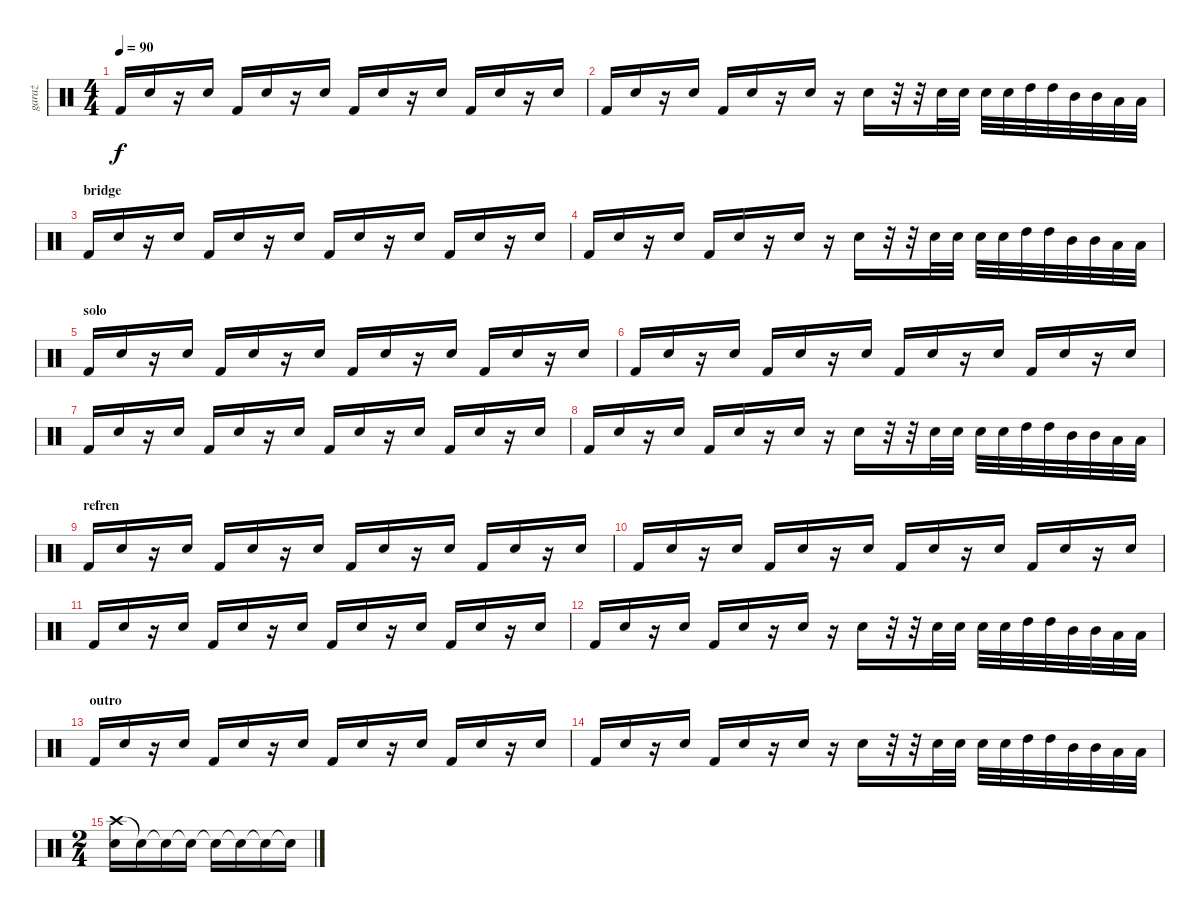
\track ("garaż" "garaż") {instrument percussion}
\staff {score}
\articulation defaults
\ts (4 4)
\tempo 90
\clef neutral
\ks c "Kick (hit) 2".16{dy f} "Snare (hit) 2".16
r.16 "Snare (hit) 2".16 "Kick (hit) 2".16 "Snare (hit) 2".16 r.16 "Snare (hit) 2".16 "Kick (hit) 2".16 "Snare (hit) 2".16 r.16 "Snare (hit) 2".16 "Kick (hit) 2".16 "Snare (hit) 2".16 r.16 "Snare (hit) 2".16 |
"Kick (hit) 2".16 "Snare (hit) 2".16 r.16 "Snare (hit) 2".16 "Kick (hit) 2".16 "Snare (hit) 2".16 r.16 "Snare (hit) 2".16 r.16 "Snare (hit) 2".16 r.32 r.32 "Snare (hit) 2".32 "Snare (hit) 2".32 "Snare (hit) 2".32 "Snare (hit) 2".32 "High Tom (hit)".32 "High Tom (hit)".32 "Mid Tom (hit)".32 "Mid Tom (hit)".32 "Low Tom (hit)".32 "Low Tom (hit)".32 |
\section ("" "bridge")
"Kick (hit) 2".16 "Snare (hit) 2".16 r.16 "Snare (hit) 2".16 "Kick (hit) 2".16 "Snare (hit) 2".16 r.16 "Snare (hit) 2".16 "Kick (hit) 2".16 "Snare (hit) 2".16 r.16 "Snare (hit) 2".16 "Kick (hit) 2".16 "Snare (hit) 2".16 r.16 "Snare (hit) 2".16 |
"Kick (hit) 2".16 "Snare (hit) 2".16 r.16 "Snare (hit) 2".16 "Kick (hit) 2".16 "Snare (hit) 2".16 r.16 "Snare (hit) 2".16 r.16 "Snare (hit) 2".16 r.32 r.32 "Snare (hit) 2".32 "Snare (hit) 2".32 "Snare (hit) 2".32 "Snare (hit) 2".32 "High Tom (hit)".32 "High Tom (hit)".32 "Mid Tom (hit)".32 "Mid Tom (hit)".32 "Low Tom (hit)".32 "Low Tom (hit)".32 |
\section ("" "solo")
"Kick (hit) 2".16 "Snare (hit) 2".16 r.16 "Snare (hit) 2".16 "Kick (hit) 2".16 "Snare (hit) 2".16 r.16 "Snare (hit) 2".16 "Kick (hit) 2".16 "Snare (hit) 2".16 r.16 "Snare (hit) 2".16 "Kick (hit) 2".16 "Snare (hit) 2".16 r.16 "Snare (hit) 2".16 |
"Kick (hit) 2".16 "Snare (hit) 2".16 r.16 "Snare (hit) 2".16 "Kick (hit) 2".16 "Snare (hit) 2".16 r.16 "Snare (hit) 2".16 "Kick (hit) 2".16 "Snare (hit) 2".16 r.16 "Snare (hit) 2".16 "Kick (hit) 2".16 "Snare (hit) 2".16 r.16 "Snare (hit) 2".16 |
"Kick (hit) 2".16 "Snare (hit) 2".16 r.16 "Snare (hit) 2".16 "Kick (hit) 2".16 "Snare (hit) 2".16 r.16 "Snare (hit) 2".16 "Kick (hit) 2".16 "Snare (hit) 2".16 r.16 "Snare (hit) 2".16 "Kick (hit) 2".16 "Snare (hit) 2".16 r.16 "Snare (hit) 2".16 |
"Kick (hit) 2".16 "Snare (hit) 2".16 r.16 "Snare (hit) 2".16 "Kick (hit) 2".16 "Snare (hit) 2".16 r.16 "Snare (hit) 2".16 r.16 "Snare (hit) 2".16 r.32 r.32 "Snare (hit) 2".32 "Snare (hit) 2".32 "Snare (hit) 2".32 "Snare (hit) 2".32 "High Tom (hit)".32 "High Tom (hit)".32 "Mid Tom (hit)".32 "Mid Tom (hit)".32 "Low Tom (hit)".32 "Low Tom (hit)".32 |
\section ("" "refren")
"Kick (hit) 2".16 "Snare (hit) 2".16 r.16 "Snare (hit) 2".16 "Kick (hit) 2".16 "Snare (hit) 2".16 r.16 "Snare (hit) 2".16 "Kick (hit) 2".16 "Snare (hit) 2".16 r.16 "Snare (hit) 2".16 "Kick (hit) 2".16 "Snare (hit) 2".16 r.16 "Snare (hit) 2".16 |
"Kick (hit) 2".16 "Snare (hit) 2".16 r.16 "Snare (hit) 2".16 "Kick (hit) 2".16 "Snare (hit) 2".16 r.16 "Snare (hit) 2".16 "Kick (hit) 2".16 "Snare (hit) 2".16 r.16 "Snare (hit) 2".16 "Kick (hit) 2".16 "Snare (hit) 2".16 r.16 "Snare (hit) 2".16 |
"Kick (hit) 2".16 "Snare (hit) 2".16 r.16 "Snare (hit) 2".16 "Kick (hit) 2".16 "Snare (hit) 2".16 r.16 "Snare (hit) 2".16 "Kick (hit) 2".16 "Snare (hit) 2".16 r.16 "Snare (hit) 2".16 "Kick (hit) 2".16 "Snare (hit) 2".16 r.16 "Snare (hit) 2".16 |
"Kick (hit) 2".16 "Snare (hit) 2".16 r.16 "Snare (hit) 2".16 "Kick (hit) 2".16 "Snare (hit) 2".16 r.16 "Snare (hit) 2".16 r.16 "Snare (hit) 2".16 r.32 r.32 "Snare (hit) 2".32 "Snare (hit) 2".32 "Snare (hit) 2".32 "Snare (hit) 2".32 "High Tom (hit)".32 "High Tom (hit)".32 "Mid Tom (hit)".32 "Mid Tom (hit)".32 "Low Tom (hit)".32 "Low Tom (hit)".32 |
\section ("" "outro")
"Kick (hit) 2".16 "Snare (hit) 2".16 r.16 "Snare (hit) 2".16 "Kick (hit) 2".16 "Snare (hit) 2".16 r.16 "Snare (hit) 2".16 "Kick (hit) 2".16 "Snare (hit) 2".16 r.16 "Snare (hit) 2".16 "Kick (hit) 2".16 "Snare (hit) 2".16 r.16 "Snare (hit) 2".16 |
"Kick (hit) 2".16 "Snare (hit) 2".16 r.16 "Snare (hit) 2".16 "Kick (hit) 2".16 "Snare (hit) 2".16 r.16 "Snare (hit) 2".16 r.16 "Snare (hit) 2".16 r.32 r.32 "Snare (hit) 2".32 "Snare (hit) 2".32 "Snare (hit) 2".32 "Snare (hit) 2".32 "High Tom (hit)".32 "High Tom (hit)".32 "Mid Tom (hit)".32 "Mid Tom (hit)".32 "Low Tom (hit)".32 "Low Tom (hit)".32 |
\ts (2 4)
("Crash high (hit)" "Snare (hit) 2").16 "Snare (hit)"{t}.16 "Snare (hit)"{t}.16 "Snare (hit)"{t}.16 "Snare (hit)"{t}.16 "Snare (hit)"{t}.16 "Snare (hit)"{t}.16 "Snare (hit)"{t}.16
